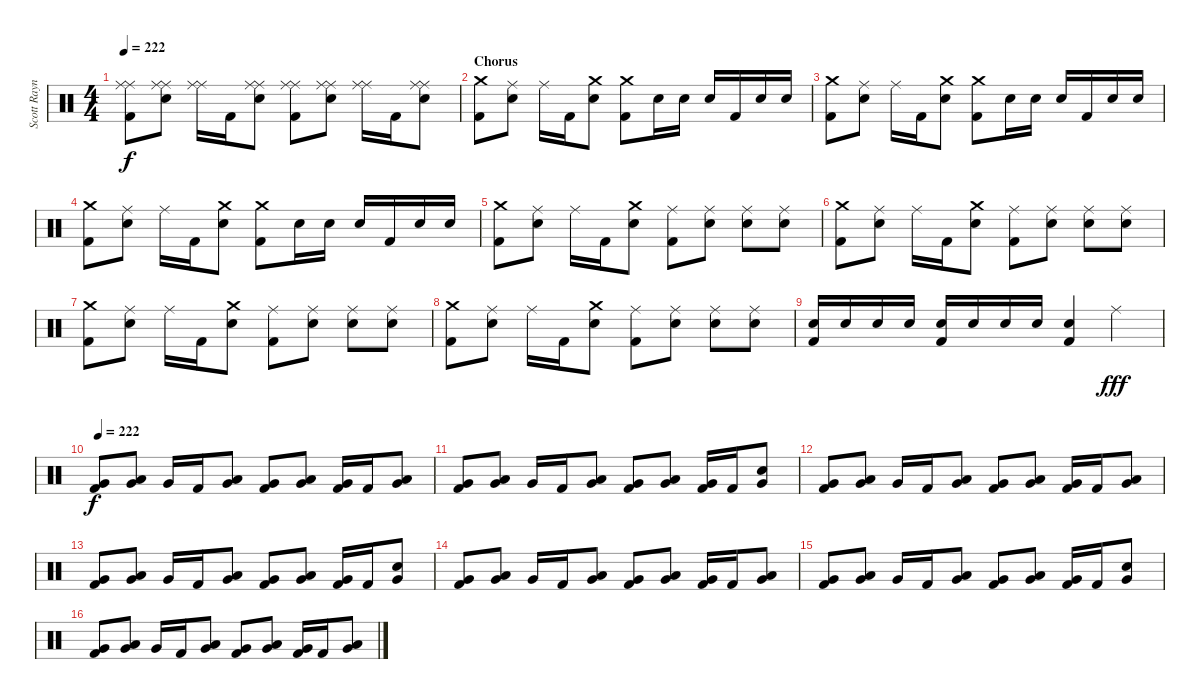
\track ("Scott Raynor - Bateria/Drums" "Scott Rayn") {instrument percussion}
\staff {score}
\articulation defaults
\ts (4 4)
\tempo 222
\clef neutral
\ks c
("Ride (middle)" "Ride (middle)" "Kick (hit) 2").8{dy f} ("Ride (middle)" "Ride (middle)" "Electric Snare (hit)").8 ("Ride (middle)" "Ride (middle)").16 "Kick (hit) 2".16 ("Ride (middle)" "Ride (middle)" "Electric Snare (hit)").8 ("Ride (middle)" "Ride (middle)" "Kick (hit) 2").8 ("Ride (middle)" "Ride (middle)" "Electric Snare (hit)").8 ("Ride (middle)" "Ride (middle)").16 "Kick (hit) 2".16 ("Ride (middle)" "Ride (middle)" "Electric Snare (hit)").8 |
\section ("" "Chorus")
("Crash medium (hit)" "Kick (hit) 2").8 ("Ride (middle)" "Electric Snare (hit)").8 "Ride (middle)".16 "Kick (hit) 2".16 ("Crash medium (hit)" "Electric Snare (hit)").8 ("Crash medium (hit)" "Kick (hit) 2").8 "Electric Snare (hit)".16 "Electric Snare (hit)".16 "Electric Snare (hit)".16 "Kick (hit) 2".16 "Electric Snare (hit)".16 "Electric Snare (hit)".16 |
("Crash medium (hit)" "Kick (hit) 2").8 ("Ride (middle)" "Electric Snare (hit)").8 "Ride (middle)".16 "Kick (hit) 2".16 ("Crash medium (hit)" "Electric Snare (hit)").8 ("Crash medium (hit)" "Kick (hit) 2").8 "Electric Snare (hit)".16 "Electric Snare (hit)".16 "Electric Snare (hit)".16 "Kick (hit) 2".16 "Electric Snare (hit)".16 "Electric Snare (hit)".16 |
("Crash medium (hit)" "Kick (hit) 2").8 ("Ride (middle)" "Electric Snare (hit)").8 "Ride (middle)".16 "Kick (hit) 2".16 ("Crash medium (hit)" "Electric Snare (hit)").8 ("Crash medium (hit)" "Kick (hit) 2").8 "Electric Snare (hit)".16 "Electric Snare (hit)".16 "Electric Snare (hit)".16 "Kick (hit) 2".16 "Electric Snare (hit)".16 "Electric Snare (hit)".16 |
("Crash medium (hit)" "Kick (hit) 2").8 ("Ride (middle)" "Electric Snare (hit)").8 "Ride (middle)".16 "Kick (hit) 2".16 ("Crash medium (hit)" "Electric Snare (hit)").8 ("Ride (middle)" "Kick (hit) 2").8 ("Ride (middle)" "Electric Snare (hit)").8 ("Ride (middle)" "Electric Snare (hit)").8 ("Ride (middle)" "Electric Snare (hit)").8 |
("Crash medium (hit)" "Kick (hit) 2").8 ("Ride (middle)" "Electric Snare (hit)").8 "Ride (middle)".16 "Kick (hit) 2".16 ("Crash medium (hit)" "Electric Snare (hit)").8 ("Ride (middle)" "Kick (hit) 2").8 ("Ride (middle)" "Electric Snare (hit)").8 ("Ride (middle)" "Electric Snare (hit)").8 ("Ride (middle)" "Electric Snare (hit)").8 |
("Crash medium (hit)" "Kick (hit) 2").8 ("Ride (middle)" "Electric Snare (hit)").8 "Ride (middle)".16 "Kick (hit) 2".16 ("Crash medium (hit)" "Electric Snare (hit)").8 ("Ride (middle)" "Kick (hit) 2").8 ("Ride (middle)" "Electric Snare (hit)").8 ("Ride (middle)" "Electric Snare (hit)").8 ("Ride (middle)" "Electric Snare (hit)").8 |
("Crash medium (hit)" "Kick (hit) 2").8 ("Ride (middle)" "Electric Snare (hit)").8 "Ride (middle)".16 "Kick (hit) 2".16 ("Crash medium (hit)" "Electric Snare (hit)").8 ("Ride (middle)" "Kick (hit) 2").8 ("Ride (middle)" "Electric Snare (hit)").8 ("Ride (middle)" "Electric Snare (hit)").8 ("Ride (middle)" "Electric Snare (hit)").8 |
("Electric Snare (hit)" "Kick (hit) 2").16 "Electric Snare (hit)".16 "Electric Snare (hit)".16 "Electric Snare (hit)".16 ("Electric Snare (hit)" "Kick (hit) 2").16 "Electric Snare (hit)".16 "Electric Snare (hit)".16 "Electric Snare (hit)".16 ("Electric Snare (hit)" "Kick (hit) 2").4 "Ride (middle)".4{dy fff} |
\tempo 222
("Very Low Tom (hit)" "Kick (hit) 2").8{dy f} ("Low Tom (hit)" "Very Low Tom (hit)").8 "Very Low Tom (hit)".16 "Kick (hit) 2".16 ("Low Tom (hit)" "Very Low Tom (hit)").8 ("Very Low Tom (hit)" "Kick (hit) 2").8 ("Low Tom (hit)" "Very Low Tom (hit)").8 ("Very Low Tom (hit)" "Kick (hit) 2").16 "Kick (hit) 2".16 ("Low Tom (hit)" "Very Low Tom (hit)").8 |
("Very Low Tom (hit)" "Kick (hit) 2").8 ("Low Tom (hit)" "Very Low Tom (hit)").8 "Very Low Tom (hit)".16 "Kick (hit) 2".16 ("Low Tom (hit)" "Very Low Tom (hit)").8 ("Very Low Tom (hit)" "Kick (hit) 2").8 ("Low Tom (hit)" "Very Low Tom (hit)").8 ("Very Low Tom (hit)" "Kick (hit) 2").16 "Kick (hit) 2".16 ("Electric Snare (hit)" "Very Low Tom (hit)").8 |
("Very Low Tom (hit)" "Kick (hit) 2").8 ("Low Tom (hit)" "Very Low Tom (hit)").8 "Very Low Tom (hit)".16 "Kick (hit) 2".16 ("Low Tom (hit)" "Very Low Tom (hit)").8 ("Very Low Tom (hit)" "Kick (hit) 2").8 ("Low Tom (hit)" "Very Low Tom (hit)").8 ("Very Low Tom (hit)" "Kick (hit) 2").16 "Kick (hit) 2".16 ("Low Tom (hit)" "Very Low Tom (hit)").8 |
("Very Low Tom (hit)" "Kick (hit) 2").8 ("Low Tom (hit)" "Very Low Tom (hit)").8 "Very Low Tom (hit)".16 "Kick (hit) 2".16 ("Low Tom (hit)" "Very Low Tom (hit)").8 ("Very Low Tom (hit)" "Kick (hit) 2").8 ("Low Tom (hit)" "Very Low Tom (hit)").8 ("Very Low Tom (hit)" "Kick (hit) 2").16 "Kick (hit) 2".16 ("Electric Snare (hit)" "Very Low Tom (hit)").8 |
("Very Low Tom (hit)" "Kick (hit) 2").8 ("Low Tom (hit)" "Very Low Tom (hit)").8 "Very Low Tom (hit)".16 "Kick (hit) 2".16 ("Low Tom (hit)" "Very Low Tom (hit)").8 ("Very Low Tom (hit)" "Kick (hit) 2").8 ("Low Tom (hit)" "Very Low Tom (hit)").8 ("Very Low Tom (hit)" "Kick (hit) 2").16 "Kick (hit) 2".16 ("Low Tom (hit)" "Very Low Tom (hit)").8 |
("Very Low Tom (hit)" "Kick (hit) 2").8 ("Low Tom (hit)" "Very Low Tom (hit)").8 "Very Low Tom (hit)".16 "Kick (hit) 2".16 ("Low Tom (hit)" "Very Low Tom (hit)").8 ("Very Low Tom (hit)" "Kick (hit) 2").8 ("Low Tom (hit)" "Very Low Tom (hit)").8 ("Very Low Tom (hit)" "Kick (hit) 2").16 "Kick (hit) 2".16 ("Electric Snare (hit)" "Very Low Tom (hit)").8 |
("Very Low Tom (hit)" "Kick (hit) 2").8 ("Low Tom (hit)" "Very Low Tom (hit)").8 "Very Low Tom (hit)".16 "Kick (hit) 2".16 ("Low Tom (hit)" "Very Low Tom (hit)").8 ("Very Low Tom (hit)" "Kick (hit) 2").8 ("Low Tom (hit)" "Very Low Tom (hit)").8 ("Very Low Tom (hit)" "Kick (hit) 2").16 "Kick (hit) 2".16 ("Low Tom (hit)" "Very Low Tom (hit)").8
